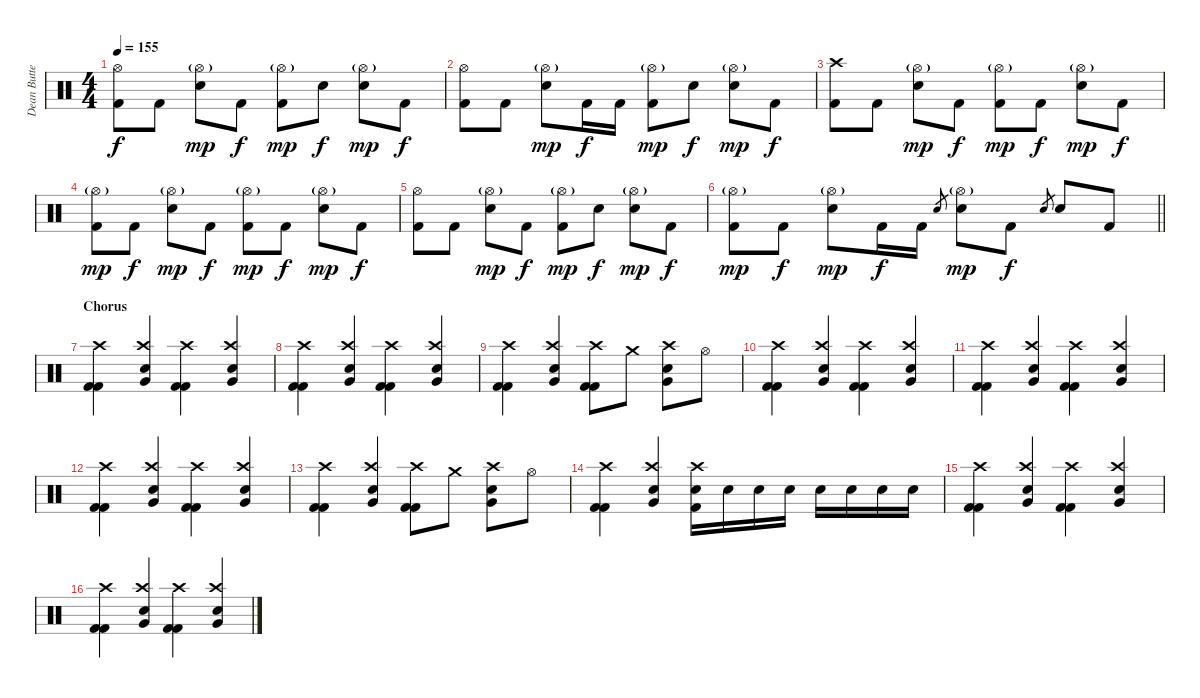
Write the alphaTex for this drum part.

\track ("Dean Butterworth [Drums]" "Dean Butte") {instrument percussion}
\staff {score}
\articulation defaults
\ts (4 4)
\tempo 155
\clef neutral
\ks c
("Hi-Hat (open)" "Kick (hit) 2").8{dy f} "Kick (hit) 2".8 ("Hi-Hat (open)"{g} "Electric Snare (hit)").8{dy mp} "Kick (hit) 2".8{dy f} ("Hi-Hat (open)"{g} "Kick (hit) 2").8{dy mp} "Electric Snare (hit)".8{dy f} ("Hi-Hat (open)"{g} "Electric Snare (hit)").8{dy mp} "Kick (hit) 2".8{dy f} |
("Hi-Hat (open)" "Kick (hit) 2").8 "Kick (hit) 2".8 ("Hi-Hat (open)"{g} "Electric Snare (hit)").8{dy mp} "Kick (hit) 2".16{dy f} "Kick (hit) 2".16 ("Hi-Hat (open)"{g} "Kick (hit) 2").8{dy mp} "Electric Snare (hit)".8{dy f} ("Hi-Hat (open)"{g} "Electric Snare (hit)").8{dy mp} "Kick (hit) 2".8{dy f} |
("Crash high (hit)" "Kick (hit) 2").8 "Kick (hit) 2".8 ("Hi-Hat (open)"{g} "Electric Snare (hit)").8{dy mp} "Kick (hit) 2".8{dy f} ("Hi-Hat (open)"{g} "Kick (hit) 2").8{dy mp} "Kick (hit) 2".8{dy f} ("Hi-Hat (open)"{g} "Electric Snare (hit)").8{dy mp} "Kick (hit) 2".8{dy f} |
("Hi-Hat (open)"{g} "Kick (hit) 2").8{dy mp} "Kick (hit) 2".8{dy f} ("Hi-Hat (open)"{g} "Electric Snare (hit)").8{dy mp} "Kick (hit) 2".8{dy f} ("Hi-Hat (open)"{g} "Kick (hit) 2").8{dy mp} "Kick (hit) 2".8{dy f} ("Hi-Hat (open)"{g} "Electric Snare (hit)").8{dy mp} "Kick (hit) 2".8{dy f} |
("Hi-Hat (open)" "Kick (hit) 2").8 "Kick (hit) 2".8 ("Hi-Hat (open)"{g} "Electric Snare (hit)").8{dy mp} "Kick (hit) 2".8{dy f} ("Hi-Hat (open)"{g} "Kick (hit) 2").8{dy mp} "Electric Snare (hit)".8{dy f} ("Hi-Hat (open)"{g} "Electric Snare (hit)").8{dy mp} "Kick (hit) 2".8{dy f} |
\barLineRight lightlight
("Hi-Hat (open)"{g} "Kick (hit) 2").8{dy mp} "Kick (hit) 2".8{dy f} ("Hi-Hat (open)"{g} "Electric Snare (hit)").8{dy mp} "Kick (hit) 2".16{dy f} "Kick (hit) 2".16 "Electric Snare (hit)".8{gr} ("Hi-Hat (open)"{g} "Electric Snare (hit)").8{dy mp} "Kick (hit) 2".8{dy f} "Electric Snare (hit)".8{gr} "Electric Snare (hit)".8 "Kick (hit) 2".8 |
\section ("" "Chorus")
("Crash high (hit)" "Kick (hit) 2" "Kick (hit) 2").4 ("Crash high (hit)" "Very Low Tom (hit)" "Electric Snare (hit)").4 ("Crash high (hit)" "Kick (hit) 2" "Kick (hit) 2").4 ("Crash high (hit)" "Very Low Tom (hit)" "Electric Snare (hit)").4 |
("Crash high (hit)" "Kick (hit) 2" "Kick (hit) 2").4 ("Crash high (hit)" "Very Low Tom (hit)" "Electric Snare (hit)").4 ("Crash high (hit)" "Kick (hit) 2" "Kick (hit) 2").4 ("Crash high (hit)" "Very Low Tom (hit)" "Electric Snare (hit)").4 |
("Crash high (hit)" "Kick (hit) 2" "Kick (hit) 2").4 ("Crash high (hit)" "Very Low Tom (hit)" "Electric Snare (hit)").4 ("Crash high (hit)" "Kick (hit) 2" "Kick (hit) 2").8 "Crash medium (hit)".8 ("Crash high (hit)" "Very Low Tom (hit)" "Electric Snare (hit)").8 "Hi-Hat (open)".8 |
("Crash high (hit)" "Kick (hit) 2" "Kick (hit) 2").4 ("Crash high (hit)" "Very Low Tom (hit)" "Electric Snare (hit)").4 ("Crash high (hit)" "Kick (hit) 2" "Kick (hit) 2").4 ("Crash high (hit)" "Very Low Tom (hit)" "Electric Snare (hit)").4 |
("Crash high (hit)" "Kick (hit) 2" "Kick (hit) 2").4 ("Crash high (hit)" "Very Low Tom (hit)" "Electric Snare (hit)").4 ("Crash high (hit)" "Kick (hit) 2" "Kick (hit) 2").4 ("Crash high (hit)" "Very Low Tom (hit)" "Electric Snare (hit)").4 |
("Crash high (hit)" "Kick (hit) 2" "Kick (hit) 2").4 ("Crash high (hit)" "Very Low Tom (hit)" "Electric Snare (hit)").4 ("Crash high (hit)" "Kick (hit) 2" "Kick (hit) 2").4 ("Crash high (hit)" "Very Low Tom (hit)" "Electric Snare (hit)").4 |
("Crash high (hit)" "Kick (hit) 2" "Kick (hit) 2").4 ("Crash high (hit)" "Very Low Tom (hit)" "Electric Snare (hit)").4 ("Crash high (hit)" "Kick (hit) 2" "Kick (hit) 2").8 "Crash medium (hit)".8 ("Crash high (hit)" "Very Low Tom (hit)" "Electric Snare (hit)").8 "Hi-Hat (open)".8 |
("Crash high (hit)" "Kick (hit) 2" "Kick (hit) 2").4 ("Crash high (hit)" "Very Low Tom (hit)" "Electric Snare (hit)").4 ("Crash high (hit)" "Electric Snare (hit)" "Kick (hit) 2").16 "Electric Snare (hit)".16 "Electric Snare (hit)".16 "Electric Snare (hit)".16 "Electric Snare (hit)".16 "Electric Snare (hit)".16 "Electric Snare (hit)".16 "Electric Snare (hit)".16 |
("Crash high (hit)" "Kick (hit) 2" "Kick (hit) 2").4 ("Crash high (hit)" "Very Low Tom (hit)" "Electric Snare (hit)").4 ("Crash high (hit)" "Kick (hit) 2" "Kick (hit) 2").4 ("Crash high (hit)" "Very Low Tom (hit)" "Electric Snare (hit)").4 |
("Crash high (hit)" "Kick (hit) 2" "Kick (hit) 2").4 ("Crash high (hit)" "Very Low Tom (hit)" "Electric Snare (hit)").4 ("Crash high (hit)" "Kick (hit) 2" "Kick (hit) 2").4 ("Crash high (hit)" "Very Low Tom (hit)" "Electric Snare (hit)").4
